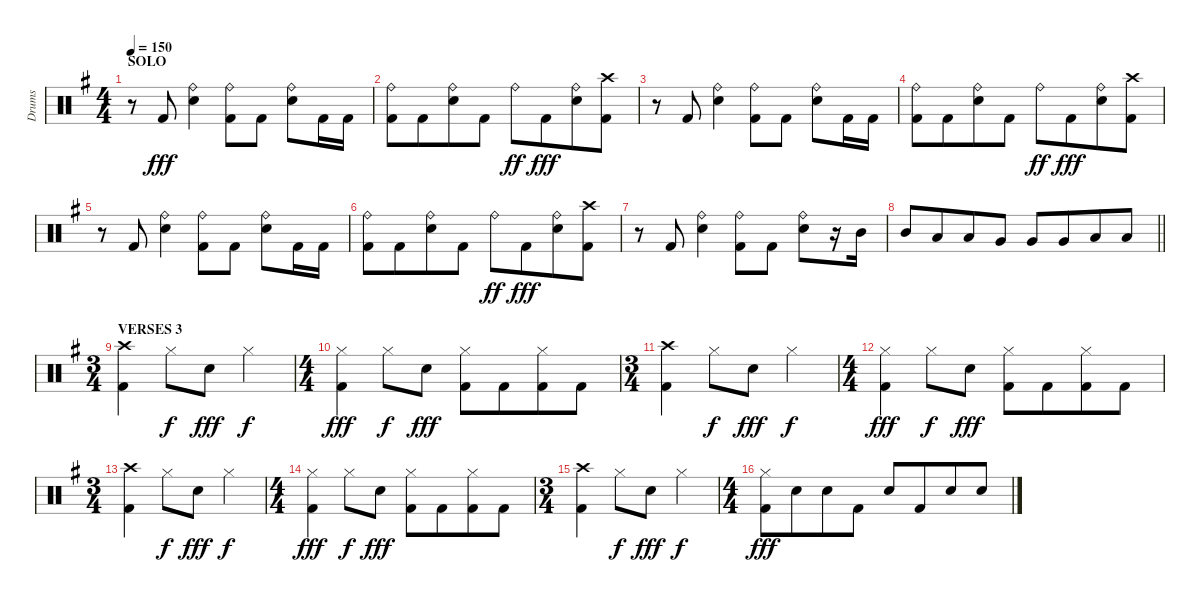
\track ("Drums" "Drums") {instrument percussion}
\staff {score}
\articulation defaults
\ts (4 4)
\section ("" "SOLO")
\tempo 150
\clef neutral
\ks eminor
r.8{dy fff} "Kick (hit) 2".8 ("Ride (bell)" "Snare (hit) 2").4 ("Ride (bell)" "Kick (hit) 2").8 "Kick (hit) 2".8 ("Ride (bell)" "Snare (hit) 2").8 "Kick (hit) 2".16 "Kick (hit) 2".16 |
("Ride (bell)" "Kick (hit) 2").8 "Kick (hit) 2".8{beam merge} ("Ride (bell)" "Snare (hit) 2").8 "Kick (hit) 2".8 "Ride (bell)".8{dy ff} "Kick (hit) 2".8{dy fff beam merge} ("Ride (bell)" "Snare (hit) 2").8 ("Crash high (hit)" "Kick (hit) 2").8 |
r.8 "Kick (hit) 2".8 ("Ride (bell)" "Snare (hit) 2").4 ("Ride (bell)" "Kick (hit) 2").8 "Kick (hit) 2".8 ("Ride (bell)" "Snare (hit) 2").8 "Kick (hit) 2".16 "Kick (hit) 2".16 |
("Ride (bell)" "Kick (hit) 2").8 "Kick (hit) 2".8{beam merge} ("Ride (bell)" "Snare (hit) 2").8 "Kick (hit) 2".8 "Ride (bell)".8{dy ff} "Kick (hit) 2".8{dy fff beam merge} ("Ride (bell)" "Snare (hit) 2").8 ("Crash high (hit)" "Kick (hit) 2").8 |
r.8 "Kick (hit) 2".8 ("Ride (bell)" "Snare (hit) 2").4 ("Ride (bell)" "Kick (hit) 2").8 "Kick (hit) 2".8 ("Ride (bell)" "Snare (hit) 2").8 "Kick (hit) 2".16 "Kick (hit) 2".16 |
("Ride (bell)" "Kick (hit) 2").8 "Kick (hit) 2".8{beam merge} ("Ride (bell)" "Snare (hit) 2").8 "Kick (hit) 2".8 "Ride (bell)".8{dy ff} "Kick (hit) 2".8{dy fff beam merge} ("Ride (bell)" "Snare (hit) 2").8 ("Crash high (hit)" "Kick (hit) 2").8 |
r.8 "Kick (hit) 2".8 ("Ride (bell)" "Snare (hit) 2").4 ("Ride (bell)" "Kick (hit) 2").8 "Kick (hit) 2".8 ("Ride (bell)" "Snare (hit) 2").8 r.16 "Mid Tom (hit)".16 |
\barLineRight lightlight "Mid Tom (hit)".8 "Low Tom (hit)".8{beam merge} "Low Tom (hit)".8 "Very Low Tom (hit)".8 "Very Low Tom (hit)".8 "Very Low Tom (hit)".8{beam merge} "Low Floor Tom (hit)".8 "Low Floor Tom (hit)".8
|
\ts (3 4)
\section ("" "VERSES 3")
("Crash high (hit)" "Kick (hit) 2").4 "Hi-Hat (closed)".8{dy f} "Snare (hit) 2".8{dy fff} "Hi-Hat (closed)".4{dy f} |
\ts (4 4)
("Hi-Hat (closed)" "Kick (hit) 2").4{dy fff} "Hi-Hat (closed)".8{dy f} "Snare (hit) 2".8{dy fff} ("Hi-Hat (closed)" "Kick (hit) 2").8 "Kick (hit) 2".8{beam merge} ("Hi-Hat (closed)" "Kick (hit) 2").8 "Kick (hit) 2".8 |
\ts (3 4)
("Crash high (hit)" "Kick (hit) 2").4 "Hi-Hat (closed)".8{dy f} "Snare (hit) 2".8{dy fff} "Hi-Hat (closed)".4{dy f} |
\ts (4 4)
("Hi-Hat (closed)" "Kick (hit) 2").4{dy fff} "Hi-Hat (closed)".8{dy f} "Snare (hit) 2".8{dy fff} ("Hi-Hat (closed)" "Kick (hit) 2").8 "Kick (hit) 2".8{beam merge} ("Hi-Hat (closed)" "Kick (hit) 2").8 "Kick (hit) 2".8 |
\ts (3 4)
("Crash high (hit)" "Kick (hit) 2").4 "Hi-Hat (closed)".8{dy f} "Snare (hit) 2".8{dy fff} "Hi-Hat (closed)".4{dy f} |
\ts (4 4)
("Hi-Hat (closed)" "Kick (hit) 2").4{dy fff} "Hi-Hat (closed)".8{dy f} "Snare (hit) 2".8{dy fff} ("Hi-Hat (closed)" "Kick (hit) 2").8 "Kick (hit) 2".8{beam merge} ("Hi-Hat (closed)" "Kick (hit) 2").8 "Kick (hit) 2".8 |
\ts (3 4)
("Crash high (hit)" "Kick (hit) 2").4 "Hi-Hat (closed)".8{dy f} "Snare (hit) 2".8{dy fff} "Hi-Hat (closed)".4{dy f} |
\ts (4 4)
("Hi-Hat (closed)" "Kick (hit) 2").8{dy fff} "Snare (hit) 2".8{beam merge} "Snare (hit) 2".8 "Kick (hit) 2".8 "Snare (hit) 2".8 "Kick (hit) 2".8{beam merge} "Snare (hit) 2".8 "Snare (hit) 2".8
